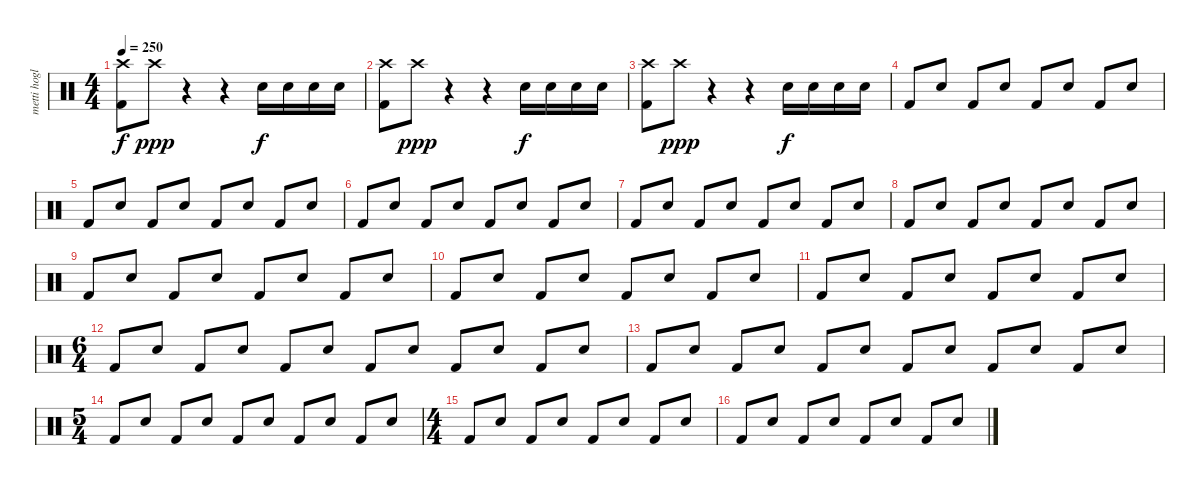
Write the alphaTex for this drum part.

\track ("metti hoglan" "metti hogl") {instrument percussion}
\staff {score}
\articulation defaults
\ts (4 4)
\tempo 250
\clef neutral
\ks c
("Crash high (hit)" "Kick (hit) 2").8{dy f} "Crash high (hit)".8{dy ppp} r.4 r.4 "Snare (hit) 2".16{dy f} "Snare (hit) 2".16 "Snare (hit) 2".16 "Snare (hit) 2".16 |
("Crash high (hit)" "Kick (hit) 2").8 "Crash high (hit)".8{dy ppp} r.4 r.4 "Snare (hit) 2".16{dy f} "Snare (hit) 2".16 "Snare (hit) 2".16 "Snare (hit) 2".16 |
("Crash high (hit)" "Kick (hit) 2").8 "Crash high (hit)".8{dy ppp} r.4 r.4 "Snare (hit) 2".16{dy f} "Snare (hit) 2".16 "Snare (hit) 2".16 "Snare (hit) 2".16 |
"Kick (hit) 2".8 "Snare (hit) 2".8 "Kick (hit) 2".8 "Snare (hit) 2".8 "Kick (hit) 2".8 "Snare (hit) 2".8 "Kick (hit) 2".8 "Snare (hit) 2".8 |
"Kick (hit) 2".8 "Snare (hit) 2".8 "Kick (hit) 2".8 "Snare (hit) 2".8 "Kick (hit) 2".8 "Snare (hit) 2".8 "Kick (hit) 2".8 "Snare (hit) 2".8 |
"Kick (hit) 2".8 "Snare (hit) 2".8 "Kick (hit) 2".8 "Snare (hit) 2".8 "Kick (hit) 2".8 "Snare (hit) 2".8 "Kick (hit) 2".8 "Snare (hit) 2".8 |
"Kick (hit) 2".8 "Snare (hit) 2".8 "Kick (hit) 2".8 "Snare (hit) 2".8 "Kick (hit) 2".8 "Snare (hit) 2".8 "Kick (hit) 2".8 "Snare (hit) 2".8 |
"Kick (hit) 2".8 "Snare (hit) 2".8 "Kick (hit) 2".8 "Snare (hit) 2".8 "Kick (hit) 2".8 "Snare (hit) 2".8 "Kick (hit) 2".8 "Snare (hit) 2".8 |
"Kick (hit) 2".8 "Snare (hit) 2".8 "Kick (hit) 2".8 "Snare (hit) 2".8 "Kick (hit) 2".8 "Snare (hit) 2".8 "Kick (hit) 2".8 "Snare (hit) 2".8 |
"Kick (hit) 2".8 "Snare (hit) 2".8 "Kick (hit) 2".8 "Snare (hit) 2".8 "Kick (hit) 2".8 "Snare (hit) 2".8 "Kick (hit) 2".8 "Snare (hit) 2".8 |
"Kick (hit) 2".8 "Snare (hit) 2".8 "Kick (hit) 2".8 "Snare (hit) 2".8 "Kick (hit) 2".8 "Snare (hit) 2".8 "Kick (hit) 2".8 "Snare (hit) 2".8 |
\ts (6 4)
"Kick (hit) 2".8 "Snare (hit) 2".8 "Kick (hit) 2".8 "Snare (hit) 2".8 "Kick (hit) 2".8 "Snare (hit) 2".8 "Kick (hit) 2".8 "Snare (hit) 2".8 "Kick (hit) 2".8 "Snare (hit) 2".8 "Kick (hit) 2".8 "Snare (hit) 2".8 |
"Kick (hit) 2".8 "Snare (hit) 2".8 "Kick (hit) 2".8 "Snare (hit) 2".8 "Kick (hit) 2".8 "Snare (hit) 2".8 "Kick (hit) 2".8 "Snare (hit) 2".8 "Kick (hit) 2".8 "Snare (hit) 2".8 "Kick (hit) 2".8 "Snare (hit) 2".8 |
\ts (5 4)
"Kick (hit) 2".8 "Snare (hit) 2".8 "Kick (hit) 2".8 "Snare (hit) 2".8 "Kick (hit) 2".8 "Snare (hit) 2".8 "Kick (hit) 2".8 "Snare (hit) 2".8 "Kick (hit) 2".8 "Snare (hit) 2".8 |
\ts (4 4)
"Kick (hit) 2".8 "Snare (hit) 2".8 "Kick (hit) 2".8 "Snare (hit) 2".8 "Kick (hit) 2".8 "Snare (hit) 2".8 "Kick (hit) 2".8 "Snare (hit) 2".8 |
"Kick (hit) 2".8 "Snare (hit) 2".8 "Kick (hit) 2".8 "Snare (hit) 2".8 "Kick (hit) 2".8 "Snare (hit) 2".8 "Kick (hit) 2".8 "Snare (hit) 2".8
